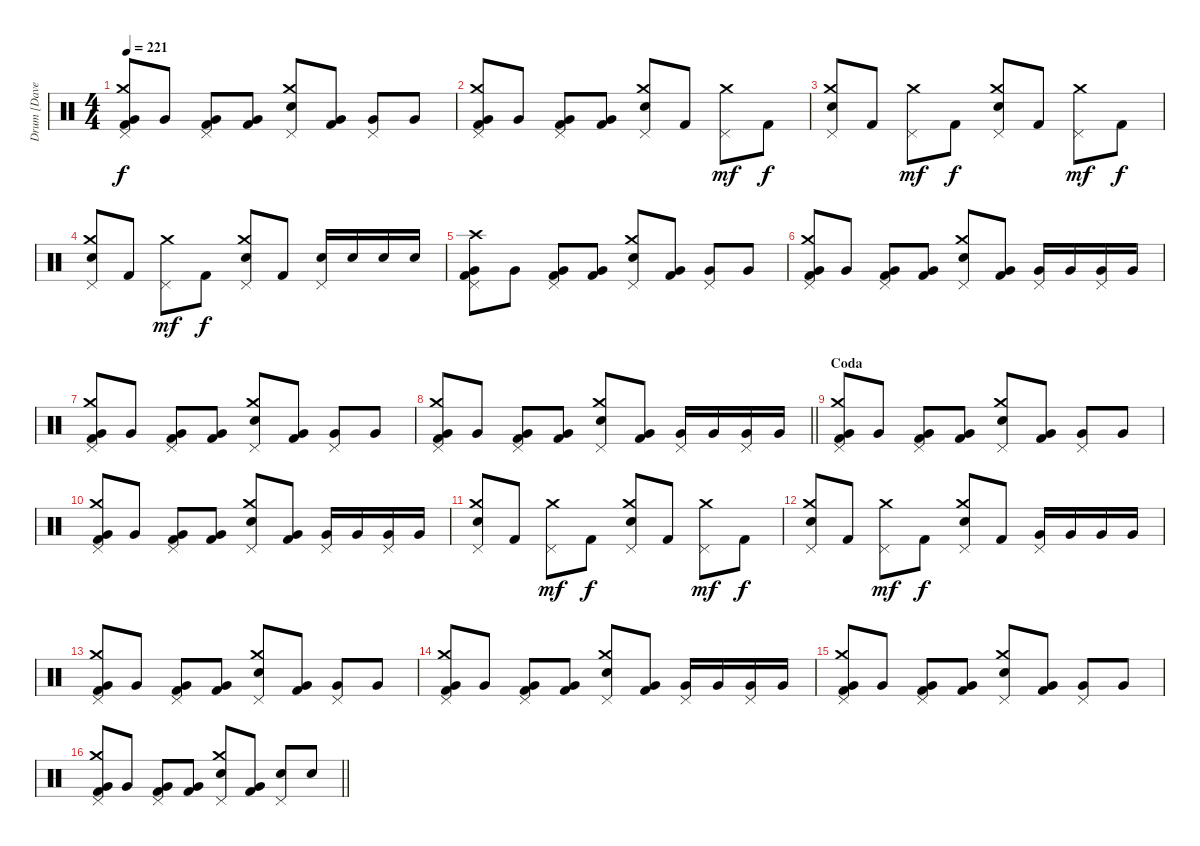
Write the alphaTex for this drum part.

\track ("Drum [Dave Grohl]" "Drum [Dave") {instrument percussion bank 255}
\staff {score}
\articulation defaults
\ts (4 4)
\tempo 221
\clef neutral
\ks c
("Pedal Hi-Hat (hit)" "Crash medium (hit)" "Very Low Tom (hit)" "Kick (hit) 2").8{dy f} "Very Low Tom (hit)".8 ("Pedal Hi-Hat (hit)" "Very Low Tom (hit)" "Kick (hit) 2").8 ("Very Low Tom (hit)" "Kick (hit) 2").8 ("Pedal Hi-Hat (hit)" "Crash medium (hit)" "Snare (hit) 2").8 ("Very Low Tom (hit)" "Kick (hit) 2").8 ("Pedal Hi-Hat (hit)" "Very Low Tom (hit)").8 "Very Low Tom (hit)".8 |
("Pedal Hi-Hat (hit)" "Crash medium (hit)" "Very Low Tom (hit)" "Kick (hit) 2").8 "Very Low Tom (hit)".8 ("Pedal Hi-Hat (hit)" "Very Low Tom (hit)" "Kick (hit) 2").8 ("Very Low Tom (hit)" "Kick (hit) 2").8 ("Pedal Hi-Hat (hit)" "Crash medium (hit)" "Snare (hit) 2").8 "Kick (hit) 2".8 ("Pedal Hi-Hat (hit)" "Crash medium (hit)").8{dy mf} "Kick (hit) 2".8{dy f} |
("Pedal Hi-Hat (hit)" "Crash medium (hit)" "Snare (hit) 2").8 "Kick (hit) 2".8 ("Pedal Hi-Hat (hit)" "Crash medium (hit)").8{dy mf} "Kick (hit) 2".8{dy f} ("Pedal Hi-Hat (hit)" "Crash medium (hit)" "Snare (hit) 2").8 "Kick (hit) 2".8 ("Pedal Hi-Hat (hit)" "Crash medium (hit)").8{dy mf} "Kick (hit) 2".8{dy f} |
("Pedal Hi-Hat (hit)" "Crash medium (hit)" "Snare (hit) 2").8 "Kick (hit) 2".8 ("Pedal Hi-Hat (hit)" "Crash medium (hit)").8{dy mf} "Kick (hit) 2".8{dy f} ("Pedal Hi-Hat (hit)" "Crash medium (hit)" "Snare (hit) 2").8 "Kick (hit) 2".8 ("Pedal Hi-Hat (hit)" "Snare (hit) 2").16 "Snare (hit) 2".16 "Snare (hit) 2".16 "Snare (hit) 2".16 |
("Pedal Hi-Hat (hit)" "Crash high (hit)" "Very Low Tom (hit)" "Kick (hit) 2").8 "Very Low Tom (hit)".8 ("Pedal Hi-Hat (hit)" "Very Low Tom (hit)" "Kick (hit) 2").8 ("Very Low Tom (hit)" "Kick (hit) 2").8 ("Pedal Hi-Hat (hit)" "Crash medium (hit)" "Snare (hit) 2").8 ("Very Low Tom (hit)" "Kick (hit) 2").8 ("Pedal Hi-Hat (hit)" "Very Low Tom (hit)").8 "Very Low Tom (hit)".8 |
("Pedal Hi-Hat (hit)" "Crash medium (hit)" "Very Low Tom (hit)" "Kick (hit) 2").8 "Very Low Tom (hit)".8 ("Pedal Hi-Hat (hit)" "Very Low Tom (hit)" "Kick (hit) 2").8 ("Very Low Tom (hit)" "Kick (hit) 2").8 ("Pedal Hi-Hat (hit)" "Crash medium (hit)" "Snare (hit) 2").8 ("Very Low Tom (hit)" "Kick (hit) 2").8 ("Pedal Hi-Hat (hit)" "Very Low Tom (hit)").16 "Very Low Tom (hit)".16 ("Pedal Hi-Hat (hit)" "Very Low Tom (hit)").16 "Very Low Tom (hit)".16 |
("Pedal Hi-Hat (hit)" "Crash medium (hit)" "Very Low Tom (hit)" "Kick (hit) 2").8 "Very Low Tom (hit)".8 ("Pedal Hi-Hat (hit)" "Very Low Tom (hit)" "Kick (hit) 2").8 ("Very Low Tom (hit)" "Kick (hit) 2").8 ("Pedal Hi-Hat (hit)" "Crash medium (hit)" "Snare (hit) 2").8 ("Very Low Tom (hit)" "Kick (hit) 2").8 ("Pedal Hi-Hat (hit)" "Very Low Tom (hit)").8 "Very Low Tom (hit)".8 |
\barLineRight lightlight
("Pedal Hi-Hat (hit)" "Crash medium (hit)" "Very Low Tom (hit)" "Kick (hit) 2").8 "Very Low Tom (hit)".8 ("Pedal Hi-Hat (hit)" "Very Low Tom (hit)" "Kick (hit) 2").8 ("Very Low Tom (hit)" "Kick (hit) 2").8 ("Pedal Hi-Hat (hit)" "Crash medium (hit)" "Snare (hit) 2").8 ("Very Low Tom (hit)" "Kick (hit) 2").8 ("Pedal Hi-Hat (hit)" "Very Low Tom (hit)").16 "Very Low Tom (hit)".16 ("Pedal Hi-Hat (hit)" "Very Low Tom (hit)").16 "Very Low Tom (hit)".16 |
\section ("" "Coda")
("Pedal Hi-Hat (hit)" "Crash medium (hit)" "Very Low Tom (hit)" "Kick (hit) 2").8 "Very Low Tom (hit)".8 ("Pedal Hi-Hat (hit)" "Very Low Tom (hit)" "Kick (hit) 2").8 ("Very Low Tom (hit)" "Kick (hit) 2").8 ("Pedal Hi-Hat (hit)" "Crash medium (hit)" "Snare (hit) 2").8 ("Very Low Tom (hit)" "Kick (hit) 2").8 ("Pedal Hi-Hat (hit)" "Very Low Tom (hit)").8 "Very Low Tom (hit)".8 |
("Pedal Hi-Hat (hit)" "Crash medium (hit)" "Very Low Tom (hit)" "Kick (hit) 2").8 "Very Low Tom (hit)".8 ("Pedal Hi-Hat (hit)" "Very Low Tom (hit)" "Kick (hit) 2").8 ("Very Low Tom (hit)" "Kick (hit) 2").8 ("Pedal Hi-Hat (hit)" "Crash medium (hit)" "Snare (hit) 2").8 ("Very Low Tom (hit)" "Kick (hit) 2").8 ("Pedal Hi-Hat (hit)" "Very Low Tom (hit)").16 "Very Low Tom (hit)".16 ("Pedal Hi-Hat (hit)" "Very Low Tom (hit)").16 "Very Low Tom (hit)".16 |
("Pedal Hi-Hat (hit)" "Crash medium (hit)" "Snare (hit) 2").8 "Kick (hit) 2".8 ("Pedal Hi-Hat (hit)" "Crash medium (hit)").8{dy mf} "Kick (hit) 2".8{dy f} ("Pedal Hi-Hat (hit)" "Crash medium (hit)" "Snare (hit) 2").8 "Kick (hit) 2".8 ("Pedal Hi-Hat (hit)" "Crash medium (hit)").8{dy mf} "Kick (hit) 2".8{dy f} |
("Pedal Hi-Hat (hit)" "Crash medium (hit)" "Snare (hit) 2").8 "Kick (hit) 2".8 ("Pedal Hi-Hat (hit)" "Crash medium (hit)").8{dy mf} "Kick (hit) 2".8{dy f} ("Pedal Hi-Hat (hit)" "Crash medium (hit)" "Snare (hit) 2").8 "Kick (hit) 2".8 ("Pedal Hi-Hat (hit)" "Very Low Tom (hit)").16 "Very Low Tom (hit)".16 "Very Low Tom (hit)".16 "Very Low Tom (hit)".16 |
("Pedal Hi-Hat (hit)" "Crash medium (hit)" "Very Low Tom (hit)" "Kick (hit) 2").8 "Very Low Tom (hit)".8 ("Pedal Hi-Hat (hit)" "Very Low Tom (hit)" "Kick (hit) 2").8 ("Very Low Tom (hit)" "Kick (hit) 2").8 ("Pedal Hi-Hat (hit)" "Crash medium (hit)" "Snare (hit) 2").8 ("Very Low Tom (hit)" "Kick (hit) 2").8 ("Pedal Hi-Hat (hit)" "Very Low Tom (hit)").8 "Very Low Tom (hit)".8 |
("Pedal Hi-Hat (hit)" "Crash medium (hit)" "Very Low Tom (hit)" "Kick (hit) 2").8 "Very Low Tom (hit)".8 ("Pedal Hi-Hat (hit)" "Very Low Tom (hit)" "Kick (hit) 2").8 ("Very Low Tom (hit)" "Kick (hit) 2").8 ("Pedal Hi-Hat (hit)" "Crash medium (hit)" "Snare (hit) 2").8 ("Very Low Tom (hit)" "Kick (hit) 2").8 ("Pedal Hi-Hat (hit)" "Very Low Tom (hit)").16 "Very Low Tom (hit)".16 ("Pedal Hi-Hat (hit)" "Very Low Tom (hit)").16 "Very Low Tom (hit)".16 |
("Pedal Hi-Hat (hit)" "Crash medium (hit)" "Very Low Tom (hit)" "Kick (hit) 2").8 "Very Low Tom (hit)".8 ("Pedal Hi-Hat (hit)" "Very Low Tom (hit)" "Kick (hit) 2").8 ("Very Low Tom (hit)" "Kick (hit) 2").8 ("Pedal Hi-Hat (hit)" "Crash medium (hit)" "Snare (hit) 2").8 ("Very Low Tom (hit)" "Kick (hit) 2").8 ("Pedal Hi-Hat (hit)" "Very Low Tom (hit)").8 "Very Low Tom (hit)".8 |
\barLineRight lightlight
("Pedal Hi-Hat (hit)" "Crash medium (hit)" "Very Low Tom (hit)" "Kick (hit) 2").8 "Very Low Tom (hit)".8 ("Pedal Hi-Hat (hit)" "Very Low Tom (hit)" "Kick (hit) 2").8 ("Very Low Tom (hit)" "Kick (hit) 2").8 ("Pedal Hi-Hat (hit)" "Crash medium (hit)" "Snare (hit) 2").8 ("Very Low Tom (hit)" "Kick (hit) 2").8 ("Pedal Hi-Hat (hit)" "Snare (hit) 2").8 "Snare (hit) 2".8
